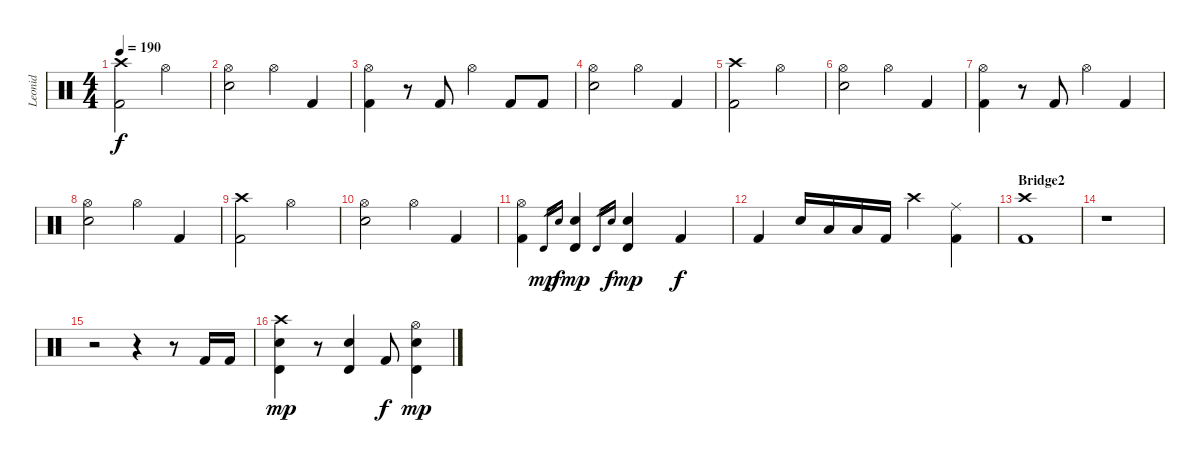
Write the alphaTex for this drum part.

\track ("Leonid" "Leonid") {instrument percussion}
\staff {score}
\articulation defaults
\ts (4 4)
\tempo 190
\clef neutral
\ks c
("Crash high (hit)" "Kick (hit) 2").2{dy f} "Hi-Hat (open)".2 |
("Hi-Hat (open)" "Electric Snare (hit)").2 "Hi-Hat (open)".4 "Kick (hit) 2".4 |
("Hi-Hat (open)" "Kick (hit) 2").4 r.8 "Kick (hit) 2".8 "Hi-Hat (open)".4 "Kick (hit) 2".8 "Kick (hit) 2".8 |
("Hi-Hat (open)" "Electric Snare (hit)").2 "Hi-Hat (open)".4 "Kick (hit) 2".4 |
("Crash high (hit)" "Kick (hit) 2").2 "Hi-Hat (open)".2 |
("Hi-Hat (open)" "Electric Snare (hit)").2 "Hi-Hat (open)".4 "Kick (hit) 2".4 |
("Hi-Hat (open)" "Kick (hit) 2").4 r.8 "Kick (hit) 2".8 "Hi-Hat (open)".4 "Kick (hit) 2".4 |
("Hi-Hat (open)" "Electric Snare (hit)").2 "Hi-Hat (open)".4 "Kick (hit) 2".4 |
("Crash high (hit)" "Kick (hit) 2").2 "Hi-Hat (open)".2 |
("Hi-Hat (open)" "Electric Snare (hit)").2 "Hi-Hat (open)".4 "Kick (hit) 2".4 |
("Hi-Hat (open)" "Kick (hit) 2").4 "Timbale high (hit)".16{gr dy mp} "Electric Snare (hit)".16{gr dy f} ("Timbale high (hit)" "Electric Snare (hit)").4{dy mp} "Timbale high (hit)".16{gr} "Electric Snare (hit)".16{gr dy f} ("Timbale high (hit)" "Electric Snare (hit)").4{dy mp} "Kick (hit) 2".4{dy f} |
"Kick (hit) 2".4 "Electric Snare (hit)".16 "Low Tom (hit)".16 "Low Tom (hit)".16 "Kick (hit) 2".16 "Crash high (hit)".4 ("Ride (middle)" "Kick (hit) 2").4 |
\section ("" "Bridge2")
("Crash high (hit)" "Kick (hit) 2").1 |
r.1 |
r.2 r.4 r.8 "Kick (hit) 2".16 "Kick (hit) 2".16 |
("Crash high (hit)" "Timbale high (hit)" "Electric Snare (hit)").4{dy mp} r.8 ("Timbale high (hit)" "Electric Snare (hit)").4 "Kick (hit) 2".8{dy f} ("Hi-Hat (open)" "Timbale high (hit)" "Electric Snare (hit)").4{dy mp}
